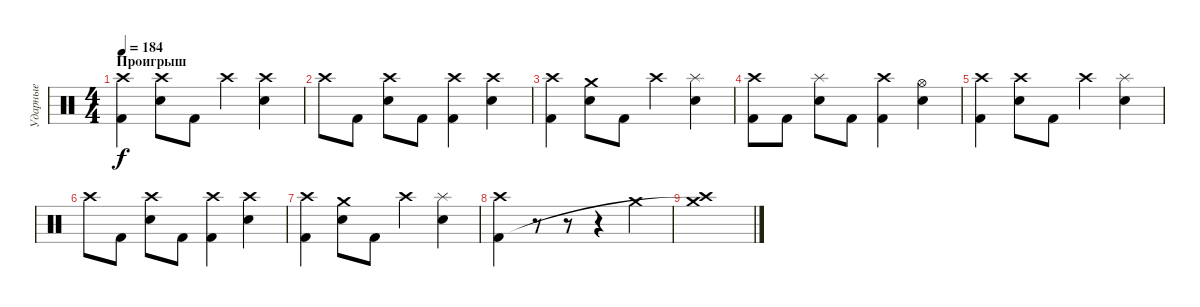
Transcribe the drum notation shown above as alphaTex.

\track ("Ударные" "Ударные") {instrument percussion}
\staff {score}
\articulation defaults
\ts (4 4)
\section ("" "Проигрыш")
\tempo 184
\clef neutral
\ks c
("Crash high (hit)" "Kick (hit) 2").4{dy f} ("Crash high (hit)" "Snare (hit) 2").8 "Kick (hit) 2".8 "Crash high (hit)".4 ("Crash high (hit)" "Snare (hit) 2").4 |
"Crash high (hit)".8 "Kick (hit) 2".8 ("Crash high (hit)" "Snare (hit) 2").8 "Kick (hit) 2".8 ("Crash high (hit)" "Kick (hit) 2").4 ("Crash high (hit)" "Snare (hit) 2").4 |
("Crash high (hit)" "Kick (hit) 2").4 ("Crash medium (hit)" "Snare (hit) 2").8 "Kick (hit) 2".8 "Crash high (hit)".4 ("Splash (hit)" "Snare (hit) 2").4 |
("Crash high (hit)" "Kick (hit) 2").8 "Kick (hit) 2".8 ("Splash (hit)" "Snare (hit) 2").8 "Kick (hit) 2".8 ("Crash high (hit)" "Kick (hit) 2").4 ("Hi-Hat (open)" "Snare (hit) 2").4 |
("Crash high (hit)" "Kick (hit) 2").4 ("Crash high (hit)" "Snare (hit) 2").8 "Kick (hit) 2".8 "Crash high (hit)".4 ("Splash (hit)" "Snare (hit) 2").4 |
"Crash high (hit)".8 "Kick (hit) 2".8 ("Crash high (hit)" "Snare (hit) 2").8 "Kick (hit) 2".8 ("Crash high (hit)" "Kick (hit) 2").4 ("Crash high (hit)" "Snare (hit) 2").4 |
("Crash high (hit)" "Kick (hit) 2").4 ("Crash medium (hit)" "Snare (hit) 2").8 "Kick (hit) 2".8 "Crash high (hit)".4 ("Splash (hit)" "Snare (hit) 2").4 |
("Crash high (hit)" "Kick (hit) 2").4 r.8 r.8 r.4 "Crash medium (hit)".4 |
("Crash high (hit)" "Crash medium (hit)"{t}).1
